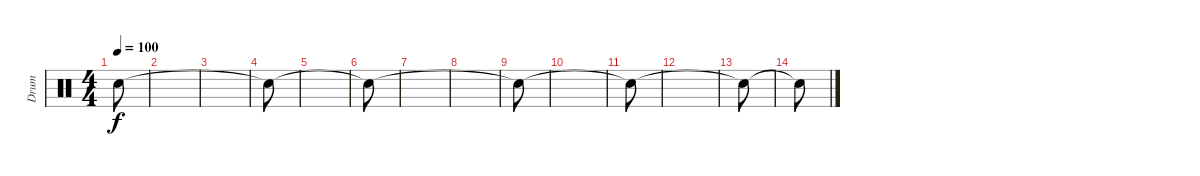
\track ("Drum" "Drum") {instrument percussion}
\staff {score}
\articulation defaults
\ts (4 4)
\tempo 100
\clef neutral
\ks c "Snare (hit)"{t}.8{dy f}
|
|
|
"Snare (hit)"{t}.8 |
|
"Snare (hit)"{t}.8 |
|
|
"Snare (hit)"{t}.8 |
|
"Snare (hit)"{t}.8 |
|
"Snare (hit)"{t}.8 |
"Snare (hit)"{t}.8
